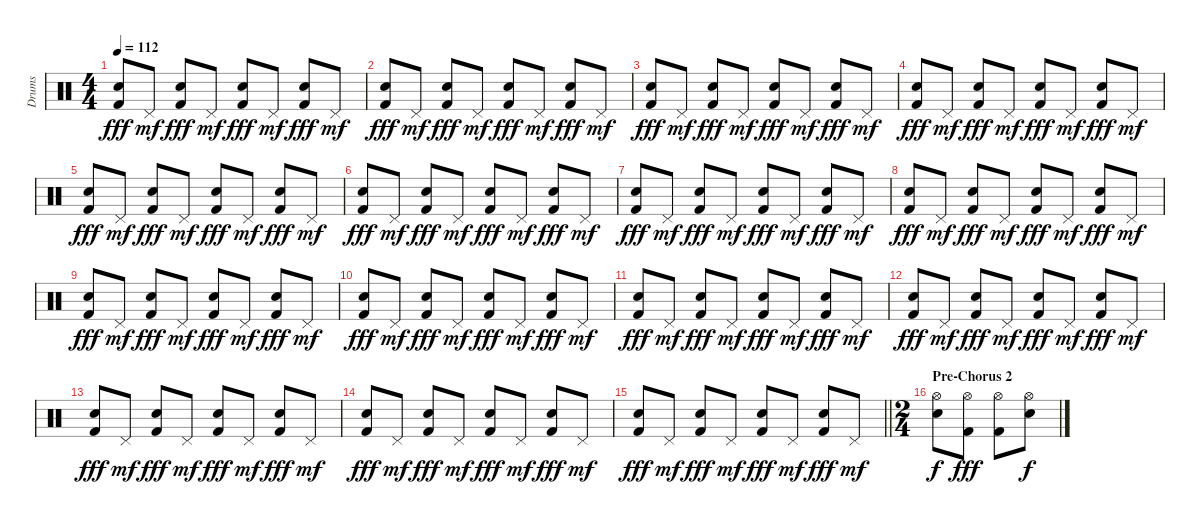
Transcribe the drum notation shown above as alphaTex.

\track ("Drums" "Drums") {instrument percussion}
\staff {score}
\articulation defaults
\ts (4 4)
\tempo 112
\clef neutral
\ks c
("Electric Snare (hit)" "Kick (hit) 2").8{dy fff} "Pedal Hi-Hat (hit)".8{dy mf} ("Electric Snare (hit)" "Kick (hit) 2").8{dy fff} "Pedal Hi-Hat (hit)".8{dy mf} ("Electric Snare (hit)" "Kick (hit) 2").8{dy fff} "Pedal Hi-Hat (hit)".8{dy mf} ("Electric Snare (hit)" "Kick (hit) 2").8{dy fff} "Pedal Hi-Hat (hit)".8{dy mf} |
("Electric Snare (hit)" "Kick (hit) 2").8{dy fff} "Pedal Hi-Hat (hit)".8{dy mf} ("Electric Snare (hit)" "Kick (hit) 2").8{dy fff} "Pedal Hi-Hat (hit)".8{dy mf} ("Electric Snare (hit)" "Kick (hit) 2").8{dy fff} "Pedal Hi-Hat (hit)".8{dy mf} ("Electric Snare (hit)" "Kick (hit) 2").8{dy fff} "Pedal Hi-Hat (hit)".8{dy mf} |
("Electric Snare (hit)" "Kick (hit) 2").8{dy fff} "Pedal Hi-Hat (hit)".8{dy mf} ("Electric Snare (hit)" "Kick (hit) 2").8{dy fff} "Pedal Hi-Hat (hit)".8{dy mf} ("Electric Snare (hit)" "Kick (hit) 2").8{dy fff} "Pedal Hi-Hat (hit)".8{dy mf} ("Electric Snare (hit)" "Kick (hit) 2").8{dy fff} "Pedal Hi-Hat (hit)".8{dy mf} |
("Electric Snare (hit)" "Kick (hit) 2").8{dy fff} "Pedal Hi-Hat (hit)".8{dy mf} ("Electric Snare (hit)" "Kick (hit) 2").8{dy fff} "Pedal Hi-Hat (hit)".8{dy mf} ("Electric Snare (hit)" "Kick (hit) 2").8{dy fff} "Pedal Hi-Hat (hit)".8{dy mf} ("Electric Snare (hit)" "Kick (hit) 2").8{dy fff} "Pedal Hi-Hat (hit)".8{dy mf} |
("Electric Snare (hit)" "Kick (hit) 2").8{dy fff} "Pedal Hi-Hat (hit)".8{dy mf} ("Electric Snare (hit)" "Kick (hit) 2").8{dy fff} "Pedal Hi-Hat (hit)".8{dy mf} ("Electric Snare (hit)" "Kick (hit) 2").8{dy fff} "Pedal Hi-Hat (hit)".8{dy mf} ("Electric Snare (hit)" "Kick (hit) 2").8{dy fff} "Pedal Hi-Hat (hit)".8{dy mf} |
("Electric Snare (hit)" "Kick (hit) 2").8{dy fff} "Pedal Hi-Hat (hit)".8{dy mf} ("Electric Snare (hit)" "Kick (hit) 2").8{dy fff} "Pedal Hi-Hat (hit)".8{dy mf} ("Electric Snare (hit)" "Kick (hit) 2").8{dy fff} "Pedal Hi-Hat (hit)".8{dy mf} ("Electric Snare (hit)" "Kick (hit) 2").8{dy fff} "Pedal Hi-Hat (hit)".8{dy mf} |
("Electric Snare (hit)" "Kick (hit) 2").8{dy fff} "Pedal Hi-Hat (hit)".8{dy mf} ("Electric Snare (hit)" "Kick (hit) 2").8{dy fff} "Pedal Hi-Hat (hit)".8{dy mf} ("Electric Snare (hit)" "Kick (hit) 2").8{dy fff} "Pedal Hi-Hat (hit)".8{dy mf} ("Electric Snare (hit)" "Kick (hit) 2").8{dy fff} "Pedal Hi-Hat (hit)".8{dy mf} |
("Electric Snare (hit)" "Kick (hit) 2").8{dy fff} "Pedal Hi-Hat (hit)".8{dy mf} ("Electric Snare (hit)" "Kick (hit) 2").8{dy fff} "Pedal Hi-Hat (hit)".8{dy mf} ("Electric Snare (hit)" "Kick (hit) 2").8{dy fff} "Pedal Hi-Hat (hit)".8{dy mf} ("Electric Snare (hit)" "Kick (hit) 2").8{dy fff} "Pedal Hi-Hat (hit)".8{dy mf} |
("Electric Snare (hit)" "Kick (hit) 2").8{dy fff} "Pedal Hi-Hat (hit)".8{dy mf} ("Electric Snare (hit)" "Kick (hit) 2").8{dy fff} "Pedal Hi-Hat (hit)".8{dy mf} ("Electric Snare (hit)" "Kick (hit) 2").8{dy fff} "Pedal Hi-Hat (hit)".8{dy mf} ("Electric Snare (hit)" "Kick (hit) 2").8{dy fff} "Pedal Hi-Hat (hit)".8{dy mf} |
("Electric Snare (hit)" "Kick (hit) 2").8{dy fff} "Pedal Hi-Hat (hit)".8{dy mf} ("Electric Snare (hit)" "Kick (hit) 2").8{dy fff} "Pedal Hi-Hat (hit)".8{dy mf} ("Electric Snare (hit)" "Kick (hit) 2").8{dy fff} "Pedal Hi-Hat (hit)".8{dy mf} ("Electric Snare (hit)" "Kick (hit) 2").8{dy fff} "Pedal Hi-Hat (hit)".8{dy mf} |
("Electric Snare (hit)" "Kick (hit) 2").8{dy fff} "Pedal Hi-Hat (hit)".8{dy mf} ("Electric Snare (hit)" "Kick (hit) 2").8{dy fff} "Pedal Hi-Hat (hit)".8{dy mf} ("Electric Snare (hit)" "Kick (hit) 2").8{dy fff} "Pedal Hi-Hat (hit)".8{dy mf} ("Electric Snare (hit)" "Kick (hit) 2").8{dy fff} "Pedal Hi-Hat (hit)".8{dy mf} |
("Electric Snare (hit)" "Kick (hit) 2").8{dy fff} "Pedal Hi-Hat (hit)".8{dy mf} ("Electric Snare (hit)" "Kick (hit) 2").8{dy fff} "Pedal Hi-Hat (hit)".8{dy mf} ("Electric Snare (hit)" "Kick (hit) 2").8{dy fff} "Pedal Hi-Hat (hit)".8{dy mf} ("Electric Snare (hit)" "Kick (hit) 2").8{dy fff} "Pedal Hi-Hat (hit)".8{dy mf} |
("Electric Snare (hit)" "Kick (hit) 2").8{dy fff} "Pedal Hi-Hat (hit)".8{dy mf} ("Electric Snare (hit)" "Kick (hit) 2").8{dy fff} "Pedal Hi-Hat (hit)".8{dy mf} ("Electric Snare (hit)" "Kick (hit) 2").8{dy fff} "Pedal Hi-Hat (hit)".8{dy mf} ("Electric Snare (hit)" "Kick (hit) 2").8{dy fff} "Pedal Hi-Hat (hit)".8{dy mf} |
("Electric Snare (hit)" "Kick (hit) 2").8{dy fff} "Pedal Hi-Hat (hit)".8{dy mf} ("Electric Snare (hit)" "Kick (hit) 2").8{dy fff} "Pedal Hi-Hat (hit)".8{dy mf} ("Electric Snare (hit)" "Kick (hit) 2").8{dy fff} "Pedal Hi-Hat (hit)".8{dy mf} ("Electric Snare (hit)" "Kick (hit) 2").8{dy fff} "Pedal Hi-Hat (hit)".8{dy mf} |
\barLineRight lightlight
("Electric Snare (hit)" "Kick (hit) 2").8{dy fff} "Pedal Hi-Hat (hit)".8{dy mf} ("Electric Snare (hit)" "Kick (hit) 2").8{dy fff} "Pedal Hi-Hat (hit)".8{dy mf} ("Electric Snare (hit)" "Kick (hit) 2").8{dy fff} "Pedal Hi-Hat (hit)".8{dy mf} ("Electric Snare (hit)" "Kick (hit) 2").8{dy fff} "Pedal Hi-Hat (hit)".8{dy mf} |
\ts (2 4)
\section ("" "Pre-Chorus 2")
("Hi-Hat (open)" "Electric Snare (hit)").8{dy f} ("Hi-Hat (open)" "Kick (hit) 2").8{dy fff} ("Hi-Hat (open)" "Kick (hit) 2").8 ("Hi-Hat (open)" "Electric Snare (hit)").8{dy f}
